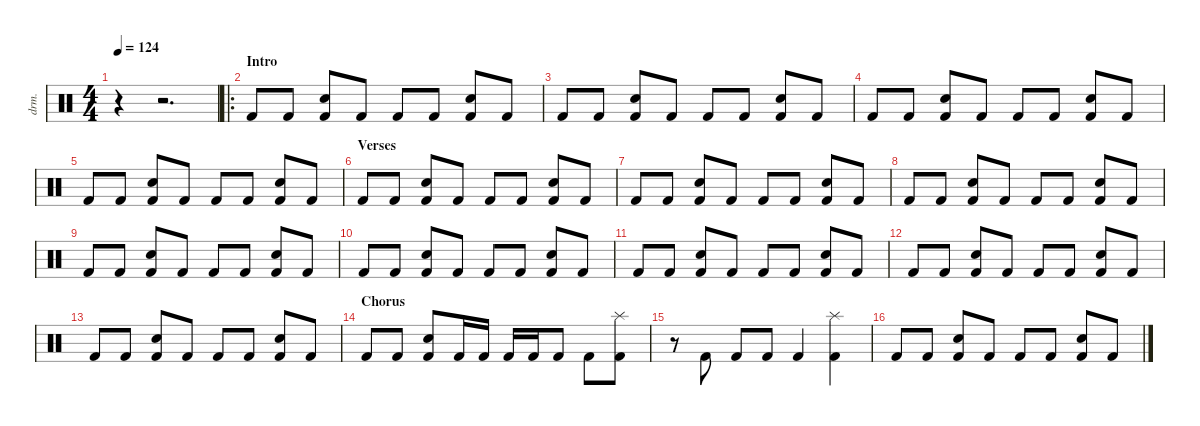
\defaultSystemsLayout 4
\hideDynamics
\bracketExtendMode nobrackets
\otherSystemsTrackNameOrientation horizontal
\track ("Drums" "drm.") {instrument percussion}
\staff {score}
\articulation defaults
\ts (4 4)
\tempo 124
\clef neutral
\ks c
r.4{dy f beam Down} r.2{d beam Down} |
\ro
\section ("" "Intro")
"Kick (hit) 2".8{beam Up} "Kick (hit) 2".8{beam Up} ("Kick (hit) 2" "Snare (hit) 2").8{beam Up} "Kick (hit) 2".8{beam Up} "Kick (hit) 2".8{beam Up} "Kick (hit) 2".8{beam Up} ("Kick (hit) 2" "Snare (hit) 2").8{beam Up} "Kick (hit) 2".8{beam Up} |
"Kick (hit) 2".8{beam Up} "Kick (hit) 2".8{beam Up} ("Kick (hit) 2" "Snare (hit) 2").8{beam Up} "Kick (hit) 2".8{beam Up} "Kick (hit) 2".8{beam Up} "Kick (hit) 2".8{beam Up} ("Kick (hit) 2" "Snare (hit) 2").8{beam Up} "Kick (hit) 2".8{beam Up} |
"Kick (hit) 2".8{beam Up} "Kick (hit) 2".8{beam Up} ("Kick (hit) 2" "Snare (hit) 2").8{beam Up} "Kick (hit) 2".8{beam Up} "Kick (hit) 2".8{beam Up} "Kick (hit) 2".8{beam Up} ("Kick (hit) 2" "Snare (hit) 2").8{beam Up} "Kick (hit) 2".8{beam Up} |
"Kick (hit) 2".8{beam Up} "Kick (hit) 2".8{beam Up} ("Kick (hit) 2" "Snare (hit) 2").8{beam Up} "Kick (hit) 2".8{beam Up} "Kick (hit) 2".8{beam Up} "Kick (hit) 2".8{beam Up} ("Kick (hit) 2" "Snare (hit) 2").8{beam Up} "Kick (hit) 2".8{beam Up} |
\section ("" "Verses")
"Kick (hit) 2".8{beam Up} "Kick (hit) 2".8{beam Up} ("Kick (hit) 2" "Snare (hit) 2").8{beam Up} "Kick (hit) 2".8{beam Up} "Kick (hit) 2".8{beam Up} "Kick (hit) 2".8{beam Up} ("Kick (hit) 2" "Snare (hit) 2").8{beam Up} "Kick (hit) 2".8{beam Up} |
"Kick (hit) 2".8{beam Up} "Kick (hit) 2".8{beam Up} ("Kick (hit) 2" "Snare (hit) 2").8{beam Up} "Kick (hit) 2".8{beam Up} "Kick (hit) 2".8{beam Up} "Kick (hit) 2".8{beam Up} ("Kick (hit) 2" "Snare (hit) 2").8{beam Up} "Kick (hit) 2".8{beam Up} |
"Kick (hit) 2".8{beam Up} "Kick (hit) 2".8{beam Up} ("Kick (hit) 2" "Snare (hit) 2").8{beam Up} "Kick (hit) 2".8{beam Up} "Kick (hit) 2".8{beam Up} "Kick (hit) 2".8{beam Up} ("Kick (hit) 2" "Snare (hit) 2").8{beam Up} "Kick (hit) 2".8{beam Up} |
"Kick (hit) 2".8{beam Up} "Kick (hit) 2".8{beam Up} ("Kick (hit) 2" "Snare (hit) 2").8{beam Up} "Kick (hit) 2".8{beam Up} "Kick (hit) 2".8{beam Up} "Kick (hit) 2".8{beam Up} ("Kick (hit) 2" "Snare (hit) 2").8{beam Up} "Kick (hit) 2".8{beam Up} |
"Kick (hit) 2".8{beam Up} "Kick (hit) 2".8{beam Up} ("Kick (hit) 2" "Snare (hit) 2").8{beam Up} "Kick (hit) 2".8{beam Up} "Kick (hit) 2".8{beam Up} "Kick (hit) 2".8{beam Up} ("Kick (hit) 2" "Snare (hit) 2").8{beam Up} "Kick (hit) 2".8{beam Up} |
"Kick (hit) 2".8{beam Up} "Kick (hit) 2".8{beam Up} ("Kick (hit) 2" "Snare (hit) 2").8{beam Up} "Kick (hit) 2".8{beam Up} "Kick (hit) 2".8{beam Up} "Kick (hit) 2".8{beam Up} ("Kick (hit) 2" "Snare (hit) 2").8{beam Up} "Kick (hit) 2".8{beam Up} |
"Kick (hit) 2".8{beam Up} "Kick (hit) 2".8{beam Up} ("Kick (hit) 2" "Snare (hit) 2").8{beam Up} "Kick (hit) 2".8{beam Up} "Kick (hit) 2".8{beam Up} "Kick (hit) 2".8{beam Up} ("Kick (hit) 2" "Snare (hit) 2").8{beam Up} "Kick (hit) 2".8{beam Up} |
"Kick (hit) 2".8{beam Up} "Kick (hit) 2".8{beam Up} ("Kick (hit) 2" "Snare (hit) 2").8{beam Up} "Kick (hit) 2".8{beam Up} "Kick (hit) 2".8{beam Up} "Kick (hit) 2".8{beam Up} ("Kick (hit) 2" "Snare (hit) 2").8{beam Up} "Kick (hit) 2".8{beam Up} |
\section ("" "Chorus")
"Kick (hit) 2".8{beam Up} "Kick (hit) 2".8{beam Up} ("Kick (hit) 2" "Snare (hit) 2").8{beam Up} "Kick (hit) 2".16{beam Up} "Kick (hit) 2".16{beam Up} "Kick (hit) 2".16{beam Up} "Kick (hit) 2".16{beam Up} "Kick (hit) 2".8{beam Up} "Kick (hit) 2".8{beam Down} ("Kick (hit) 2" "Splash (hit)").8{beam Down} |
r.8{beam Down} "Kick (hit) 2".8{beam Up} "Kick (hit) 2".8{beam Up} "Kick (hit) 2".8{beam Up} "Kick (hit) 2".4{beam Up} ("Kick (hit) 2" "Splash (hit)").4{beam Down} |
"Kick (hit) 2".8{beam Up} "Kick (hit) 2".8{beam Up} ("Kick (hit) 2" "Snare (hit) 2").8{beam Up} "Kick (hit) 2".8{beam Up} "Kick (hit) 2".8{beam Up} "Kick (hit) 2".8{beam Up} ("Kick (hit) 2" "Snare (hit) 2").8{beam Up} "Kick (hit) 2".8{beam Up}
